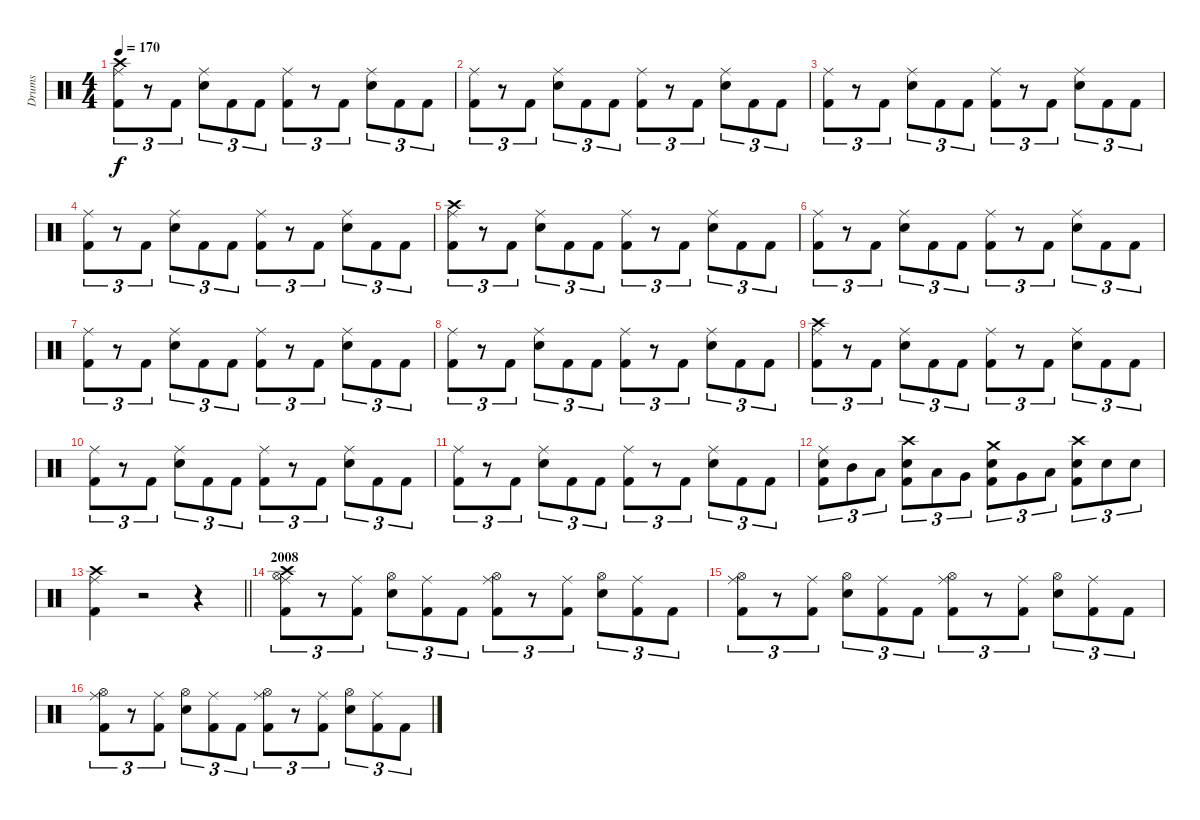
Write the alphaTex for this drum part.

\track ("Drums" "Drums") {instrument percussion}
\staff {score}
\articulation defaults
\ts (4 4)
\tempo 170
\clef neutral
\ks c
("Crash high (hit)" "Ride (middle)" "Kick (hit) 2").8{tu (3 2) dy f} r.8{tu (3 2)} "Kick (hit) 2".8{tu (3 2)} ("Ride (middle)" "Snare (hit) 2").8{tu (3 2)} "Kick (hit) 2".8{tu (3 2)} "Kick (hit) 2".8{tu (3 2)} ("Ride (middle)" "Kick (hit) 2").8{tu (3 2)} r.8{tu (3 2)} "Kick (hit) 2".8{tu (3 2)} ("Ride (middle)" "Snare (hit) 2").8{tu (3 2)} "Kick (hit) 2".8{tu (3 2)} "Kick (hit) 2".8{tu (3 2)} |
("Ride (middle)" "Kick (hit) 2").8{tu (3 2)} r.8{tu (3 2)} "Kick (hit) 2".8{tu (3 2)} ("Ride (middle)" "Snare (hit) 2").8{tu (3 2)} "Kick (hit) 2".8{tu (3 2)} "Kick (hit) 2".8{tu (3 2)} ("Ride (middle)" "Kick (hit) 2").8{tu (3 2)} r.8{tu (3 2)} "Kick (hit) 2".8{tu (3 2)} ("Ride (middle)" "Snare (hit) 2").8{tu (3 2)} "Kick (hit) 2".8{tu (3 2)} "Kick (hit) 2".8{tu (3 2)} |
("Ride (middle)" "Kick (hit) 2").8{tu (3 2)} r.8{tu (3 2)} "Kick (hit) 2".8{tu (3 2)} ("Ride (middle)" "Snare (hit) 2").8{tu (3 2)} "Kick (hit) 2".8{tu (3 2)} "Kick (hit) 2".8{tu (3 2)} ("Ride (middle)" "Kick (hit) 2").8{tu (3 2)} r.8{tu (3 2)} "Kick (hit) 2".8{tu (3 2)} ("Ride (middle)" "Snare (hit) 2").8{tu (3 2)} "Kick (hit) 2".8{tu (3 2)} "Kick (hit) 2".8{tu (3 2)} |
("Ride (middle)" "Kick (hit) 2").8{tu (3 2)} r.8{tu (3 2)} "Kick (hit) 2".8{tu (3 2)} ("Ride (middle)" "Snare (hit) 2").8{tu (3 2)} "Kick (hit) 2".8{tu (3 2)} "Kick (hit) 2".8{tu (3 2)} ("Ride (middle)" "Kick (hit) 2").8{tu (3 2)} r.8{tu (3 2)} "Kick (hit) 2".8{tu (3 2)} ("Ride (middle)" "Snare (hit) 2").8{tu (3 2)} "Kick (hit) 2".8{tu (3 2)} "Kick (hit) 2".8{tu (3 2)} |
("Crash high (hit)" "Ride (middle)" "Kick (hit) 2").8{tu (3 2)} r.8{tu (3 2)} "Kick (hit) 2".8{tu (3 2)} ("Ride (middle)" "Snare (hit) 2").8{tu (3 2)} "Kick (hit) 2".8{tu (3 2)} "Kick (hit) 2".8{tu (3 2)} ("Ride (middle)" "Kick (hit) 2").8{tu (3 2)} r.8{tu (3 2)} "Kick (hit) 2".8{tu (3 2)} ("Ride (middle)" "Snare (hit) 2").8{tu (3 2)} "Kick (hit) 2".8{tu (3 2)} "Kick (hit) 2".8{tu (3 2)} |
("Ride (middle)" "Kick (hit) 2").8{tu (3 2)} r.8{tu (3 2)} "Kick (hit) 2".8{tu (3 2)} ("Ride (middle)" "Snare (hit) 2").8{tu (3 2)} "Kick (hit) 2".8{tu (3 2)} "Kick (hit) 2".8{tu (3 2)} ("Ride (middle)" "Kick (hit) 2").8{tu (3 2)} r.8{tu (3 2)} "Kick (hit) 2".8{tu (3 2)} ("Ride (middle)" "Snare (hit) 2").8{tu (3 2)} "Kick (hit) 2".8{tu (3 2)} "Kick (hit) 2".8{tu (3 2)} |
("Ride (middle)" "Kick (hit) 2").8{tu (3 2)} r.8{tu (3 2)} "Kick (hit) 2".8{tu (3 2)} ("Ride (middle)" "Snare (hit) 2").8{tu (3 2)} "Kick (hit) 2".8{tu (3 2)} "Kick (hit) 2".8{tu (3 2)} ("Ride (middle)" "Kick (hit) 2").8{tu (3 2)} r.8{tu (3 2)} "Kick (hit) 2".8{tu (3 2)} ("Ride (middle)" "Snare (hit) 2").8{tu (3 2)} "Kick (hit) 2".8{tu (3 2)} "Kick (hit) 2".8{tu (3 2)} |
("Ride (middle)" "Kick (hit) 2").8{tu (3 2)} r.8{tu (3 2)} "Kick (hit) 2".8{tu (3 2)} ("Ride (middle)" "Snare (hit) 2").8{tu (3 2)} "Kick (hit) 2".8{tu (3 2)} "Kick (hit) 2".8{tu (3 2)} ("Ride (middle)" "Kick (hit) 2").8{tu (3 2)} r.8{tu (3 2)} "Kick (hit) 2".8{tu (3 2)} ("Ride (middle)" "Snare (hit) 2").8{tu (3 2)} "Kick (hit) 2".8{tu (3 2)} "Kick (hit) 2".8{tu (3 2)} |
("Crash high (hit)" "Ride (middle)" "Kick (hit) 2").8{tu (3 2)} r.8{tu (3 2)} "Kick (hit) 2".8{tu (3 2)} ("Ride (middle)" "Snare (hit) 2").8{tu (3 2)} "Kick (hit) 2".8{tu (3 2)} "Kick (hit) 2".8{tu (3 2)} ("Ride (middle)" "Kick (hit) 2").8{tu (3 2)} r.8{tu (3 2)} "Kick (hit) 2".8{tu (3 2)} ("Ride (middle)" "Snare (hit) 2").8{tu (3 2)} "Kick (hit) 2".8{tu (3 2)} "Kick (hit) 2".8{tu (3 2)} |
("Ride (middle)" "Kick (hit) 2").8{tu (3 2)} r.8{tu (3 2)} "Kick (hit) 2".8{tu (3 2)} ("Ride (middle)" "Snare (hit) 2").8{tu (3 2)} "Kick (hit) 2".8{tu (3 2)} "Kick (hit) 2".8{tu (3 2)} ("Ride (middle)" "Kick (hit) 2").8{tu (3 2)} r.8{tu (3 2)} "Kick (hit) 2".8{tu (3 2)} ("Ride (middle)" "Snare (hit) 2").8{tu (3 2)} "Kick (hit) 2".8{tu (3 2)} "Kick (hit) 2".8{tu (3 2)} |
("Ride (middle)" "Kick (hit) 2").8{tu (3 2)} r.8{tu (3 2)} "Kick (hit) 2".8{tu (3 2)} ("Ride (middle)" "Snare (hit) 2").8{tu (3 2)} "Kick (hit) 2".8{tu (3 2)} "Kick (hit) 2".8{tu (3 2)} ("Ride (middle)" "Kick (hit) 2").8{tu (3 2)} r.8{tu (3 2)} "Kick (hit) 2".8{tu (3 2)} ("Ride (middle)" "Snare (hit) 2").8{tu (3 2)} "Kick (hit) 2".8{tu (3 2)} "Kick (hit) 2".8{tu (3 2)} |
("Ride (middle)" "Snare (hit) 2" "Kick (hit) 2").8{tu (3 2)} "Mid Tom (hit)".8{tu (3 2)} "Low Tom (hit)".8{tu (3 2)} ("Crash high (hit)" "Snare (hit) 2" "Kick (hit) 2").8{tu (3 2)} "Low Tom (hit)".8{tu (3 2)} "Very Low Tom (hit)".8{tu (3 2)} ("Crash medium (hit)" "Snare (hit) 2" "Kick (hit) 2").8{tu (3 2)} "Very Low Tom (hit)".8{tu (3 2)} "Low Floor Tom (hit)".8{tu (3 2)} ("Crash high (hit)" "Snare (hit) 2" "Kick (hit) 2").8{tu (3 2)} "Snare (hit) 2".8{tu (3 2)} "Snare (hit) 2".8{tu (3 2)} |
\barLineRight lightlight
("Crash high (hit)" "Ride (middle)" "Kick (hit) 2").4 r.2 r.4 |
\section ("" "2008")
("Crash high (hit)" "Ride (middle)" "Hi-Hat (open)" "Kick (hit) 2").8{tu (3 2)} r.8{tu (3 2)} ("Ride (middle)" "Kick (hit) 2").8{tu (3 2)} ("Hi-Hat (open)" "Snare (hit) 2").8{tu (3 2)} ("Ride (middle)" "Kick (hit) 2").8{tu (3 2)} "Kick (hit) 2".8{tu (3 2)} ("Ride (middle)" "Hi-Hat (open)" "Kick (hit) 2").8{tu (3 2)} r.8{tu (3 2)} ("Ride (middle)" "Kick (hit) 2").8{tu (3 2)} ("Hi-Hat (open)" "Snare (hit) 2").8{tu (3 2)} ("Ride (middle)" "Kick (hit) 2").8{tu (3 2)} "Kick (hit) 2".8{tu (3 2)} |
("Ride (middle)" "Hi-Hat (open)" "Kick (hit) 2").8{tu (3 2)} r.8{tu (3 2)} ("Ride (middle)" "Kick (hit) 2").8{tu (3 2)} ("Hi-Hat (open)" "Snare (hit) 2").8{tu (3 2)} ("Ride (middle)" "Kick (hit) 2").8{tu (3 2)} "Kick (hit) 2".8{tu (3 2)} ("Ride (middle)" "Hi-Hat (open)" "Kick (hit) 2").8{tu (3 2)} r.8{tu (3 2)} ("Ride (middle)" "Kick (hit) 2").8{tu (3 2)} ("Hi-Hat (open)" "Snare (hit) 2").8{tu (3 2)} ("Ride (middle)" "Kick (hit) 2").8{tu (3 2)} "Kick (hit) 2".8{tu (3 2)} |
("Ride (middle)" "Hi-Hat (open)" "Kick (hit) 2").8{tu (3 2)} r.8{tu (3 2)} ("Ride (middle)" "Kick (hit) 2").8{tu (3 2)} ("Hi-Hat (open)" "Snare (hit) 2").8{tu (3 2)} ("Ride (middle)" "Kick (hit) 2").8{tu (3 2)} "Kick (hit) 2".8{tu (3 2)} ("Ride (middle)" "Hi-Hat (open)" "Kick (hit) 2").8{tu (3 2)} r.8{tu (3 2)} ("Ride (middle)" "Kick (hit) 2").8{tu (3 2)} ("Hi-Hat (open)" "Snare (hit) 2").8{tu (3 2)} ("Ride (middle)" "Kick (hit) 2").8{tu (3 2)} "Kick (hit) 2".8{tu (3 2)}
